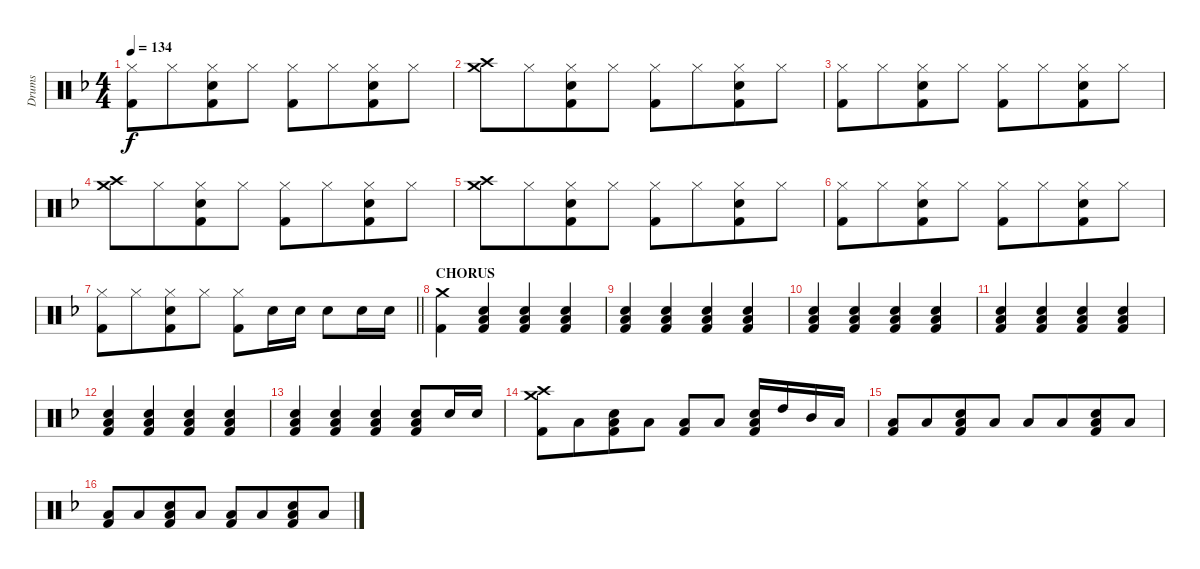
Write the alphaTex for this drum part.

\track ("Drums" "Drums") {instrument percussion}
\staff {score}
\articulation defaults
\ts (4 4)
\tempo 134
\clef neutral
\ks f
("Hi-Hat (closed)" "Kick (hit) 2").8{dy f} "Hi-Hat (closed)".8{beam merge} ("Hi-Hat (closed)" "Kick (hit) 2" "Snare (hit) 2").8 "Hi-Hat (closed)".8 ("Hi-Hat (closed)" "Kick (hit) 2").8 "Hi-Hat (closed)".8{beam merge} ("Hi-Hat (closed)" "Kick (hit) 2" "Snare (hit) 2").8 "Hi-Hat (closed)".8 |
("Crash high (hit)" "Crash medium (hit)").8 "Hi-Hat (closed)".8{beam merge} ("Hi-Hat (closed)" "Kick (hit) 2" "Snare (hit) 2").8 "Hi-Hat (closed)".8 ("Hi-Hat (closed)" "Kick (hit) 2").8 "Hi-Hat (closed)".8{beam merge} ("Hi-Hat (closed)" "Kick (hit) 2" "Snare (hit) 2").8 "Hi-Hat (closed)".8 |
("Hi-Hat (closed)" "Kick (hit) 2").8 "Hi-Hat (closed)".8{beam merge} ("Hi-Hat (closed)" "Kick (hit) 2" "Snare (hit) 2").8 "Hi-Hat (closed)".8 ("Hi-Hat (closed)" "Kick (hit) 2").8 "Hi-Hat (closed)".8{beam merge} ("Hi-Hat (closed)" "Kick (hit) 2" "Snare (hit) 2").8 "Hi-Hat (closed)".8 |
("Crash medium (hit)" "Crash high (hit)").8 "Hi-Hat (closed)".8{beam merge} ("Hi-Hat (closed)" "Kick (hit) 2" "Snare (hit) 2").8 "Hi-Hat (closed)".8 ("Hi-Hat (closed)" "Kick (hit) 2").8 "Hi-Hat (closed)".8{beam merge} ("Hi-Hat (closed)" "Kick (hit) 2" "Snare (hit) 2").8 "Hi-Hat (closed)".8 |
("Crash high (hit)" "Crash medium (hit)").8 "Hi-Hat (closed)".8{beam merge} ("Hi-Hat (closed)" "Kick (hit) 2" "Snare (hit) 2").8 "Hi-Hat (closed)".8 ("Hi-Hat (closed)" "Kick (hit) 2").8 "Hi-Hat (closed)".8{beam merge} ("Hi-Hat (closed)" "Kick (hit) 2" "Snare (hit) 2").8 "Hi-Hat (closed)".8 |
("Hi-Hat (closed)" "Kick (hit) 2").8 "Hi-Hat (closed)".8{beam merge} ("Hi-Hat (closed)" "Kick (hit) 2" "Snare (hit) 2").8 "Hi-Hat (closed)".8 ("Hi-Hat (closed)" "Kick (hit) 2").8 "Hi-Hat (closed)".8{beam merge} ("Hi-Hat (closed)" "Kick (hit) 2" "Snare (hit) 2").8 "Hi-Hat (closed)".8 |
\barLineRight lightlight
("Hi-Hat (closed)" "Kick (hit) 2").8 "Hi-Hat (closed)".8{beam merge} ("Hi-Hat (closed)" "Kick (hit) 2" "Snare (hit) 2").8 "Hi-Hat (closed)".8 ("Hi-Hat (closed)" "Kick (hit) 2").8 "Snare (hit) 2".16 "Snare (hit) 2".16 "Snare (hit) 2".8 "Snare (hit) 2".16 "Snare (hit) 2".16 |
\section ("" "CHORUS")
("Crash medium (hit)" "Kick (hit) 2").4 ("Low Tom (hit)" "Kick (hit) 2" "Snare (hit) 2").4 ("Low Tom (hit)" "Kick (hit) 2" "Snare (hit) 2").4 ("Low Tom (hit)" "Kick (hit) 2" "Snare (hit) 2").4 |
("Low Tom (hit)" "Kick (hit) 2" "Snare (hit) 2").4 ("Low Tom (hit)" "Kick (hit) 2" "Snare (hit) 2").4 ("Low Tom (hit)" "Kick (hit) 2" "Snare (hit) 2").4 ("Low Tom (hit)" "Kick (hit) 2" "Snare (hit) 2").4 |
("Low Tom (hit)" "Kick (hit) 2" "Snare (hit) 2").4 ("Low Tom (hit)" "Kick (hit) 2" "Snare (hit) 2").4 ("Low Tom (hit)" "Kick (hit) 2" "Snare (hit) 2").4 ("Low Tom (hit)" "Kick (hit) 2" "Snare (hit) 2").4 |
("Low Tom (hit)" "Kick (hit) 2" "Snare (hit) 2").4 ("Low Tom (hit)" "Kick (hit) 2" "Snare (hit) 2").4 ("Low Tom (hit)" "Kick (hit) 2" "Snare (hit) 2").4 ("Low Tom (hit)" "Kick (hit) 2" "Snare (hit) 2").4 |
("Low Tom (hit)" "Kick (hit) 2" "Snare (hit) 2").4 ("Low Tom (hit)" "Kick (hit) 2" "Snare (hit) 2").4 ("Low Tom (hit)" "Kick (hit) 2" "Snare (hit) 2").4 ("Low Tom (hit)" "Kick (hit) 2" "Snare (hit) 2").4 |
("Low Tom (hit)" "Kick (hit) 2" "Snare (hit) 2").4 ("Low Tom (hit)" "Kick (hit) 2" "Snare (hit) 2").4 ("Low Tom (hit)" "Kick (hit) 2" "Snare (hit) 2").4 ("Low Tom (hit)" "Kick (hit) 2" "Snare (hit) 2").8 "Snare (hit) 2".16 "Snare (hit) 2".16 |
("Crash high (hit)" "Crash medium (hit)" "Kick (hit) 2").8 "Low Tom (hit)".8{beam merge} ("Low Tom (hit)" "Snare (hit) 2" "Kick (hit) 2").8 "Low Tom (hit)".8 ("Low Tom (hit)" "Kick (hit) 2").8 "Low Tom (hit)".8 ("Low Tom (hit)" "Snare (hit) 2" "Kick (hit) 2").16 "High Tom (hit)".16 "Mid Tom (hit)".16 "Low Tom (hit)".16 |
("Low Tom (hit)" "Kick (hit) 2").8 "Low Tom (hit)".8{beam merge} ("Low Tom (hit)" "Snare (hit) 2" "Kick (hit) 2").8 "Low Tom (hit)".8 "Low Tom (hit)".8 "Low Tom (hit)".8{beam merge} ("Low Tom (hit)" "Snare (hit) 2" "Kick (hit) 2").8 "Low Tom (hit)".8 |
("Low Tom (hit)" "Kick (hit) 2").8 "Low Tom (hit)".8{beam merge} ("Low Tom (hit)" "Kick (hit) 2" "Snare (hit) 2").8 "Low Tom (hit)".8 ("Low Tom (hit)" "Kick (hit) 2").8 "Low Tom (hit)".8{beam merge} ("Low Tom (hit)" "Snare (hit) 2" "Kick (hit) 2").8 "Low Tom (hit)".8
